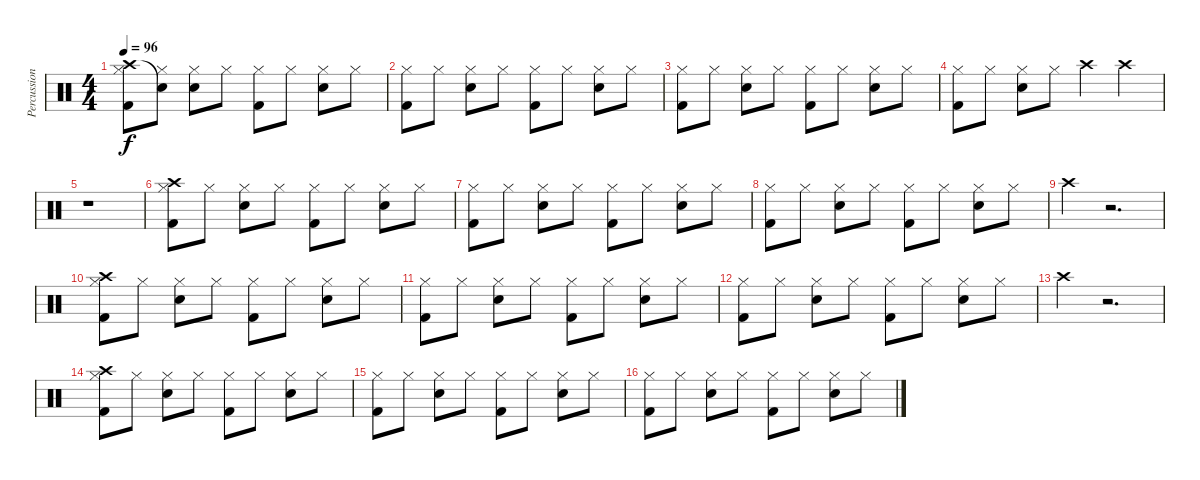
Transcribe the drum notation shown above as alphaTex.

\track ("Percussion" "Percussion") {instrument percussion}
\staff {score}
\articulation defaults
\ts (4 4)
\tempo 96
\clef neutral
\ks c
("Crash high (hit)" "Hi-Hat (closed)" "Kick (hit) 2").8{dy f} ("Snare (hit)"{t} "Hi-Hat (closed)").8 ("Hi-Hat (closed)" "Snare (hit) 2").8 "Hi-Hat (closed)".8 ("Hi-Hat (closed)" "Kick (hit) 2").8 "Hi-Hat (closed)".8 ("Hi-Hat (closed)" "Snare (hit) 2").8 "Hi-Hat (closed)".8 |
("Hi-Hat (closed)" "Kick (hit) 2").8 "Hi-Hat (closed)".8 ("Hi-Hat (closed)" "Snare (hit) 2").8 "Hi-Hat (closed)".8 ("Hi-Hat (closed)" "Kick (hit) 2").8 "Hi-Hat (closed)".8 ("Hi-Hat (closed)" "Snare (hit) 2").8 "Hi-Hat (closed)".8 |
("Hi-Hat (closed)" "Kick (hit) 2").8 "Hi-Hat (closed)".8 ("Hi-Hat (closed)" "Snare (hit) 2").8 "Hi-Hat (closed)".8 ("Hi-Hat (closed)" "Kick (hit) 2").8 "Hi-Hat (closed)".8 ("Hi-Hat (closed)" "Snare (hit) 2").8 "Hi-Hat (closed)".8 |
("Hi-Hat (closed)" "Kick (hit) 2").8 "Hi-Hat (closed)".8 ("Hi-Hat (closed)" "Snare (hit) 2").8 "Hi-Hat (closed)".8 "Crash high (hit)".4 "Crash high (hit)".4 |
r.1 |
("Crash high (hit)" "Hi-Hat (closed)" "Kick (hit) 2").8 "Hi-Hat (closed)".8 ("Hi-Hat (closed)" "Snare (hit) 2").8 "Hi-Hat (closed)".8 ("Hi-Hat (closed)" "Kick (hit) 2").8 "Hi-Hat (closed)".8 ("Hi-Hat (closed)" "Snare (hit) 2").8 "Hi-Hat (closed)".8 |
("Hi-Hat (closed)" "Kick (hit) 2").8 "Hi-Hat (closed)".8 ("Hi-Hat (closed)" "Snare (hit) 2").8 "Hi-Hat (closed)".8 ("Hi-Hat (closed)" "Kick (hit) 2").8 "Hi-Hat (closed)".8 ("Hi-Hat (closed)" "Snare (hit) 2").8 "Hi-Hat (closed)".8 |
("Hi-Hat (closed)" "Kick (hit) 2").8 "Hi-Hat (closed)".8 ("Hi-Hat (closed)" "Snare (hit) 2").8 "Hi-Hat (closed)".8 ("Hi-Hat (closed)" "Kick (hit) 2").8 "Hi-Hat (closed)".8 ("Hi-Hat (closed)" "Snare (hit) 2").8 "Hi-Hat (closed)".8 |
"Crash high (hit)".4 r.2{d} |
("Crash high (hit)" "Hi-Hat (closed)" "Kick (hit) 2").8 "Hi-Hat (closed)".8 ("Hi-Hat (closed)" "Snare (hit) 2").8 "Hi-Hat (closed)".8 ("Hi-Hat (closed)" "Kick (hit) 2").8 "Hi-Hat (closed)".8 ("Hi-Hat (closed)" "Snare (hit) 2").8 "Hi-Hat (closed)".8 |
("Hi-Hat (closed)" "Kick (hit) 2").8 "Hi-Hat (closed)".8 ("Hi-Hat (closed)" "Snare (hit) 2").8 "Hi-Hat (closed)".8 ("Hi-Hat (closed)" "Kick (hit) 2").8 "Hi-Hat (closed)".8 ("Hi-Hat (closed)" "Snare (hit) 2").8 "Hi-Hat (closed)".8 |
("Hi-Hat (closed)" "Kick (hit) 2").8 "Hi-Hat (closed)".8 ("Hi-Hat (closed)" "Snare (hit) 2").8 "Hi-Hat (closed)".8 ("Hi-Hat (closed)" "Kick (hit) 2").8 "Hi-Hat (closed)".8 ("Hi-Hat (closed)" "Snare (hit) 2").8 "Hi-Hat (closed)".8 |
"Crash high (hit)".4 r.2{d} |
("Crash high (hit)" "Hi-Hat (closed)" "Kick (hit) 2").8 "Hi-Hat (closed)".8 ("Hi-Hat (closed)" "Snare (hit) 2").8 "Hi-Hat (closed)".8 ("Hi-Hat (closed)" "Kick (hit) 2").8 "Hi-Hat (closed)".8 ("Hi-Hat (closed)" "Snare (hit) 2").8 "Hi-Hat (closed)".8 |
("Hi-Hat (closed)" "Kick (hit) 2").8 "Hi-Hat (closed)".8 ("Hi-Hat (closed)" "Snare (hit) 2").8 "Hi-Hat (closed)".8 ("Hi-Hat (closed)" "Kick (hit) 2").8 "Hi-Hat (closed)".8 ("Hi-Hat (closed)" "Snare (hit) 2").8 "Hi-Hat (closed)".8 |
("Hi-Hat (closed)" "Kick (hit) 2").8 "Hi-Hat (closed)".8 ("Hi-Hat (closed)" "Snare (hit) 2").8 "Hi-Hat (closed)".8 ("Hi-Hat (closed)" "Kick (hit) 2").8 "Hi-Hat (closed)".8 ("Hi-Hat (closed)" "Snare (hit) 2").8 "Hi-Hat (closed)".8
